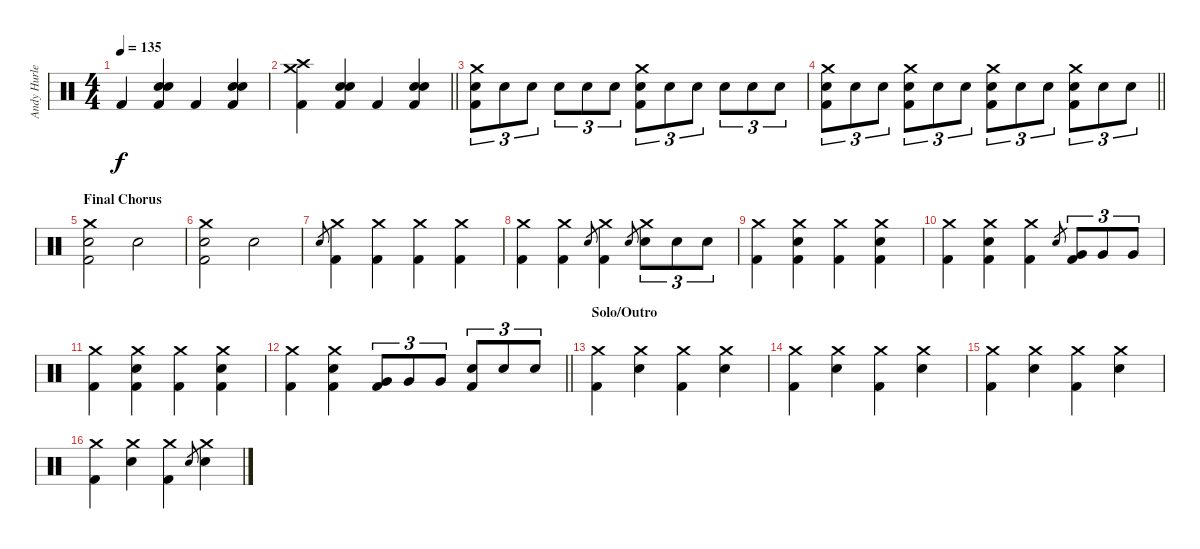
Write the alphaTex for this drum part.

\track ("Andy Hurley" "Andy Hurle") {instrument percussion}
\staff {score}
\articulation defaults
\ts (4 4)
\tempo 135
\clef neutral
\ks c "Kick (hit) 2".4{dy f}
("Electric Snare (hit)" "Electric Snare (hit)" "Kick (hit) 2").4 "Kick (hit) 2".4 ("Electric Snare (hit)" "Electric Snare (hit)" "Kick (hit) 2").4 |
\barLineRight lightlight
("Crash medium (hit)" "Crash high (hit)" "Kick (hit) 2").4 ("Electric Snare (hit)" "Electric Snare (hit)" "Kick (hit) 2").4 "Kick (hit) 2".4 ("Electric Snare (hit)" "Electric Snare (hit)" "Kick (hit) 2").4 |
("Crash medium (hit)" "Electric Snare (hit)" "Kick (hit) 2").8{tu (3 2)} "Electric Snare (hit)".8{tu (3 2)} "Electric Snare (hit)".8{tu (3 2)} "Electric Snare (hit)".8{tu (3 2)} "Electric Snare (hit)".8{tu (3 2)} "Electric Snare (hit)".8{tu (3 2)} ("Crash medium (hit)" "Electric Snare (hit)" "Kick (hit) 2").8{tu (3 2)} "Electric Snare (hit)".8{tu (3 2)} "Electric Snare (hit)".8{tu (3 2)} "Electric Snare (hit)".8{tu (3 2)} "Electric Snare (hit)".8{tu (3 2)} "Electric Snare (hit)".8{tu (3 2)} |
\barLineRight lightlight
("Crash medium (hit)" "Electric Snare (hit)" "Kick (hit) 2").8{tu (3 2)} "Electric Snare (hit)".8{tu (3 2)} "Electric Snare (hit)".8{tu (3 2)} ("Crash medium (hit)" "Electric Snare (hit)" "Kick (hit) 2").8{tu (3 2)} "Electric Snare (hit)".8{tu (3 2)} "Electric Snare (hit)".8{tu (3 2)} ("Crash medium (hit)" "Electric Snare (hit)" "Kick (hit) 2").8{tu (3 2)} "Electric Snare (hit)".8{tu (3 2)} "Electric Snare (hit)".8{tu (3 2)} ("Crash medium (hit)" "Electric Snare (hit)" "Kick (hit) 2").8{tu (3 2)} "Electric Snare (hit)".8{tu (3 2)} "Electric Snare (hit)".8{tu (3 2)} |
\section ("" "Final Chorus")
("Crash medium (hit)" "Electric Snare (hit)" "Kick (hit) 2").2 "Electric Snare (hit)".2 |
("Crash medium (hit)" "Electric Snare (hit)" "Kick (hit) 2").2 "Electric Snare (hit)".2 |
"Electric Snare (hit)".8{gr} ("Crash medium (hit)" "Kick (hit) 2").4 ("Crash medium (hit)" "Kick (hit) 2").4 ("Crash medium (hit)" "Kick (hit) 2").4 ("Crash medium (hit)" "Kick (hit) 2").4 |
("Crash medium (hit)" "Kick (hit) 2").4 ("Crash medium (hit)" "Kick (hit) 2").4 "Electric Snare (hit)".8{gr} ("Crash medium (hit)" "Kick (hit) 2").4 "Electric Snare (hit)".8{gr} ("Crash medium (hit)" "Electric Snare (hit)").8{tu (3 2)} "Electric Snare (hit)".8{tu (3 2)} "Electric Snare (hit)".8{tu (3 2)} |
("Crash medium (hit)" "Kick (hit) 2").4 ("Crash medium (hit)" "Electric Snare (hit)" "Kick (hit) 2").4 ("Crash medium (hit)" "Kick (hit) 2").4 ("Crash medium (hit)" "Electric Snare (hit)" "Kick (hit) 2").4 |
("Crash medium (hit)" "Kick (hit) 2").4 ("Crash medium (hit)" "Electric Snare (hit)" "Kick (hit) 2").4 ("Crash medium (hit)" "Kick (hit) 2").4 "Electric Snare (hit)".8{gr} ("Very Low Tom (hit)" "Kick (hit) 2").8{tu (3 2)} "Very Low Tom (hit)".8{tu (3 2)} "Very Low Tom (hit)".8{tu (3 2)} |
("Crash medium (hit)" "Kick (hit) 2").4 ("Crash medium (hit)" "Electric Snare (hit)" "Kick (hit) 2").4 ("Crash medium (hit)" "Kick (hit) 2").4 ("Crash medium (hit)" "Electric Snare (hit)" "Kick (hit) 2").4 |
\barLineRight lightlight
("Crash medium (hit)" "Kick (hit) 2").4 ("Crash medium (hit)" "Electric Snare (hit)" "Kick (hit) 2").4 ("Very Low Tom (hit)" "Kick (hit) 2").8{tu (3 2)} "Very Low Tom (hit)".8{tu (3 2)} "Very Low Tom (hit)".8{tu (3 2)} ("Electric Snare (hit)" "Kick (hit) 2").8{tu (3 2)} "Electric Snare (hit)".8{tu (3 2)} "Electric Snare (hit)".8{tu (3 2)} |
\section ("" "Solo/Outro")
("Crash medium (hit)" "Kick (hit) 2").4 ("Crash medium (hit)" "Electric Snare (hit)").4 ("Crash medium (hit)" "Kick (hit) 2").4 ("Crash medium (hit)" "Electric Snare (hit)").4 |
("Crash medium (hit)" "Kick (hit) 2").4 ("Crash medium (hit)" "Electric Snare (hit)").4 ("Crash medium (hit)" "Kick (hit) 2").4 ("Crash medium (hit)" "Electric Snare (hit)").4 |
("Crash medium (hit)" "Kick (hit) 2").4 ("Crash medium (hit)" "Electric Snare (hit)").4 ("Crash medium (hit)" "Kick (hit) 2").4 ("Crash medium (hit)" "Electric Snare (hit)").4 |
("Crash medium (hit)" "Kick (hit) 2").4 ("Crash medium (hit)" "Electric Snare (hit)").4 ("Crash medium (hit)" "Kick (hit) 2").4 "Electric Snare (hit)".8{gr} ("Crash medium (hit)" "Electric Snare (hit)").4
